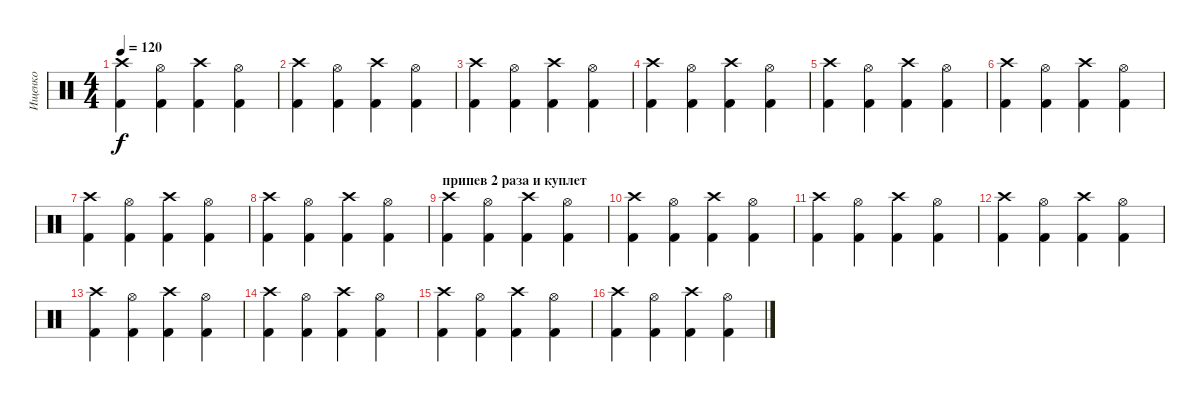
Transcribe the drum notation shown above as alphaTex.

\track ("Ищенко" "Ищенко") {instrument percussion}
\staff {score}
\articulation defaults
\ts (4 4)
\tempo 120
\clef neutral
\ks c
("Kick (hit) 2" "Crash high (hit)").4{dy f} ("Kick (hit) 2" "Hi-Hat (open)").4 ("Kick (hit) 2" "Crash high (hit)").4 ("Kick (hit) 2" "Hi-Hat (open)").4 |
("Kick (hit) 2" "Crash high (hit)").4 ("Kick (hit) 2" "Hi-Hat (open)").4 ("Kick (hit) 2" "Crash high (hit)").4 ("Kick (hit) 2" "Hi-Hat (open)").4 |
("Kick (hit) 2" "Crash high (hit)").4 ("Kick (hit) 2" "Hi-Hat (open)").4 ("Kick (hit) 2" "Crash high (hit)").4 ("Kick (hit) 2" "Hi-Hat (open)").4 |
("Kick (hit) 2" "Crash high (hit)").4 ("Kick (hit) 2" "Hi-Hat (open)").4 ("Kick (hit) 2" "Crash high (hit)").4 ("Kick (hit) 2" "Hi-Hat (open)").4 |
("Kick (hit) 2" "Crash high (hit)").4 ("Kick (hit) 2" "Hi-Hat (open)").4 ("Kick (hit) 2" "Crash high (hit)").4 ("Kick (hit) 2" "Hi-Hat (open)").4 |
("Kick (hit) 2" "Crash high (hit)").4 ("Kick (hit) 2" "Hi-Hat (open)").4 ("Kick (hit) 2" "Crash high (hit)").4 ("Kick (hit) 2" "Hi-Hat (open)").4 |
("Kick (hit) 2" "Crash high (hit)").4 ("Kick (hit) 2" "Hi-Hat (open)").4 ("Kick (hit) 2" "Crash high (hit)").4 ("Kick (hit) 2" "Hi-Hat (open)").4 |
("Kick (hit) 2" "Crash high (hit)").4 ("Kick (hit) 2" "Hi-Hat (open)").4 ("Kick (hit) 2" "Crash high (hit)").4 ("Kick (hit) 2" "Hi-Hat (open)").4 |
\section ("" "припев 2 раза и куплет ")
("Kick (hit) 2" "Crash high (hit)").4 ("Kick (hit) 2" "Hi-Hat (open)").4 ("Kick (hit) 2" "Crash high (hit)").4 ("Kick (hit) 2" "Hi-Hat (open)").4 |
("Kick (hit) 2" "Crash high (hit)").4 ("Kick (hit) 2" "Hi-Hat (open)").4 ("Kick (hit) 2" "Crash high (hit)").4 ("Kick (hit) 2" "Hi-Hat (open)").4 |
("Kick (hit) 2" "Crash high (hit)").4 ("Kick (hit) 2" "Hi-Hat (open)").4 ("Kick (hit) 2" "Crash high (hit)").4 ("Kick (hit) 2" "Hi-Hat (open)").4 |
("Kick (hit) 2" "Crash high (hit)").4 ("Kick (hit) 2" "Hi-Hat (open)").4 ("Kick (hit) 2" "Crash high (hit)").4 ("Kick (hit) 2" "Hi-Hat (open)").4 |
("Kick (hit) 2" "Crash high (hit)").4 ("Kick (hit) 2" "Hi-Hat (open)").4 ("Kick (hit) 2" "Crash high (hit)").4 ("Kick (hit) 2" "Hi-Hat (open)").4 |
("Kick (hit) 2" "Crash high (hit)").4 ("Kick (hit) 2" "Hi-Hat (open)").4 ("Kick (hit) 2" "Crash high (hit)").4 ("Kick (hit) 2" "Hi-Hat (open)").4 |
("Kick (hit) 2" "Crash high (hit)").4 ("Kick (hit) 2" "Hi-Hat (open)").4 ("Kick (hit) 2" "Crash high (hit)").4 ("Kick (hit) 2" "Hi-Hat (open)").4 |
("Kick (hit) 2" "Crash high (hit)").4 ("Kick (hit) 2" "Hi-Hat (open)").4 ("Kick (hit) 2" "Crash high (hit)").4 ("Kick (hit) 2" "Hi-Hat (open)").4
